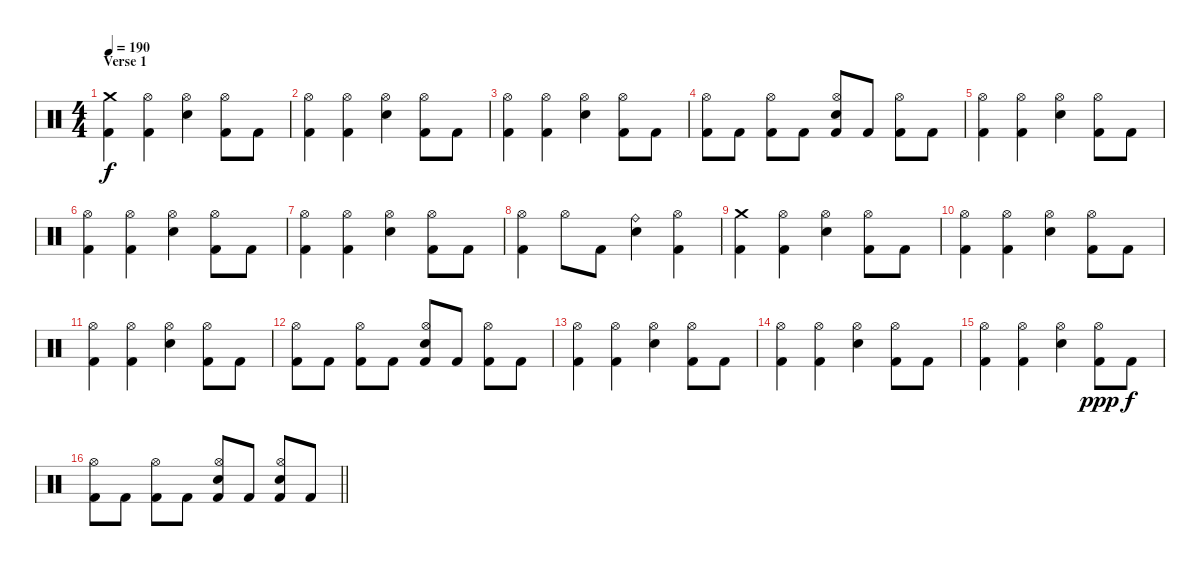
\track "" {instrument percussion}
\staff {score}
\articulation defaults
\ts (4 4)
\section ("" "Verse 1")
\tempo 190
\clef neutral
\ks c
("Crash medium (hit)" "Kick (hit) 2").4{dy f volume 16} ("Hi-Hat (open)" "Kick (hit) 2").4 ("Hi-Hat (open)" "Electric Snare (hit)").4 ("Hi-Hat (open)" "Kick (hit) 2").8 "Kick (hit) 2".8 |
("Hi-Hat (open)" "Kick (hit) 2").4 ("Hi-Hat (open)" "Kick (hit) 2").4 ("Hi-Hat (open)" "Electric Snare (hit)").4 ("Hi-Hat (open)" "Kick (hit) 2").8 "Kick (hit) 2".8 |
("Hi-Hat (open)" "Kick (hit) 2").4 ("Hi-Hat (open)" "Kick (hit) 2").4 ("Hi-Hat (open)" "Electric Snare (hit)").4 ("Hi-Hat (open)" "Kick (hit) 2").8 "Kick (hit) 2".8 |
("Hi-Hat (open)" "Kick (hit) 2").8 "Kick (hit) 2".8 ("Hi-Hat (open)" "Kick (hit) 2").8 "Kick (hit) 2".8 ("Hi-Hat (open)" "Electric Snare (hit)" "Kick (hit) 2").8 "Kick (hit) 2".8 ("Hi-Hat (open)" "Kick (hit) 2").8 "Kick (hit) 2".8 |
("Hi-Hat (open)" "Kick (hit) 2").4 ("Hi-Hat (open)" "Kick (hit) 2").4 ("Hi-Hat (open)" "Electric Snare (hit)").4 ("Hi-Hat (open)" "Kick (hit) 2").8 "Kick (hit) 2".8 |
("Hi-Hat (open)" "Kick (hit) 2").4 ("Hi-Hat (open)" "Kick (hit) 2").4 ("Hi-Hat (open)" "Electric Snare (hit)").4 ("Hi-Hat (open)" "Kick (hit) 2").8 "Kick (hit) 2".8 |
("Hi-Hat (open)" "Kick (hit) 2").4 ("Hi-Hat (open)" "Kick (hit) 2").4 ("Hi-Hat (open)" "Electric Snare (hit)").4 ("Hi-Hat (open)" "Kick (hit) 2").8 "Kick (hit) 2".8 |
("Hi-Hat (open)" "Kick (hit) 2").4 "Hi-Hat (open)".8 "Kick (hit) 2".8 ("Ride (bell)" "Electric Snare (hit)").4 ("Hi-Hat (open)" "Kick (hit) 2").4 |
("Crash medium (hit)" "Kick (hit) 2").4 ("Hi-Hat (open)" "Kick (hit) 2").4 ("Hi-Hat (open)" "Electric Snare (hit)").4 ("Hi-Hat (open)" "Kick (hit) 2").8 "Kick (hit) 2".8 |
("Hi-Hat (open)" "Kick (hit) 2").4 ("Hi-Hat (open)" "Kick (hit) 2").4 ("Hi-Hat (open)" "Electric Snare (hit)").4 ("Hi-Hat (open)" "Kick (hit) 2").8 "Kick (hit) 2".8 |
("Hi-Hat (open)" "Kick (hit) 2").4 ("Hi-Hat (open)" "Kick (hit) 2").4 ("Hi-Hat (open)" "Electric Snare (hit)").4 ("Hi-Hat (open)" "Kick (hit) 2").8 "Kick (hit) 2".8 |
("Hi-Hat (open)" "Kick (hit) 2").8 "Kick (hit) 2".8 ("Hi-Hat (open)" "Kick (hit) 2").8 "Kick (hit) 2".8 ("Hi-Hat (open)" "Electric Snare (hit)" "Kick (hit) 2").8 "Kick (hit) 2".8 ("Hi-Hat (open)" "Kick (hit) 2").8 "Kick (hit) 2".8 |
("Hi-Hat (open)" "Kick (hit) 2").4 ("Hi-Hat (open)" "Kick (hit) 2").4 ("Hi-Hat (open)" "Electric Snare (hit)").4 ("Hi-Hat (open)" "Kick (hit) 2").8 "Kick (hit) 2".8 |
("Hi-Hat (open)" "Kick (hit) 2").4 ("Hi-Hat (open)" "Kick (hit) 2").4 ("Hi-Hat (open)" "Electric Snare (hit)").4 ("Hi-Hat (open)" "Kick (hit) 2").8 "Kick (hit) 2".8 |
("Hi-Hat (open)" "Kick (hit) 2").4 ("Hi-Hat (open)" "Kick (hit) 2").4 ("Hi-Hat (open)" "Electric Snare (hit)").4 ("Hi-Hat (open)" "Kick (hit) 2").8{dy ppp} "Kick (hit) 2".8{dy f} |
\barLineRight lightlight
("Hi-Hat (open)" "Kick (hit) 2").8 "Kick (hit) 2".8 ("Hi-Hat (open)" "Kick (hit) 2").8 "Kick (hit) 2".8 ("Hi-Hat (open)" "Electric Snare (hit)" "Kick (hit) 2").8 "Kick (hit) 2".8 ("Hi-Hat (open)" "Electric Snare (hit)" "Kick (hit) 2").8 "Kick (hit) 2".8
